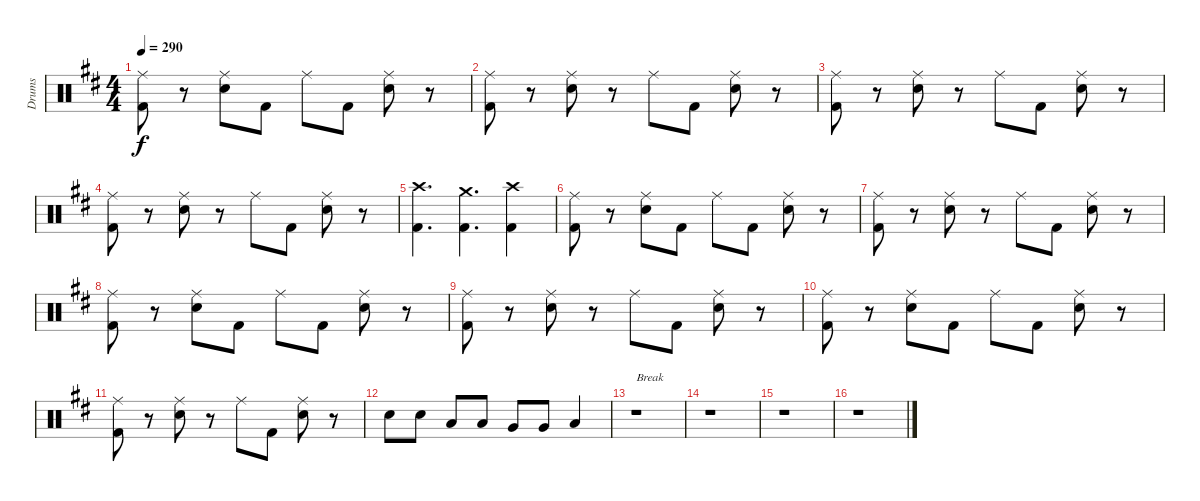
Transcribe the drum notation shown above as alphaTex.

\track ("Drums" "Drums") {instrument percussion}
\staff {score}
\articulation defaults
\ts (4 4)
\tempo 290
\clef neutral
\ks d
("Ride (middle)" "Kick (hit) 2").8{dy f} r.8 ("Ride (middle)" "Electric Snare (hit)").8 "Kick (hit) 2".8 "Ride (middle)".8 "Kick (hit) 2".8 ("Ride (middle)" "Electric Snare (hit)").8 r.8 |
("Ride (middle)" "Kick (hit) 2").8 r.8 ("Ride (middle)" "Electric Snare (hit)").8 r.8 "Ride (middle)".8 "Kick (hit) 2".8 ("Ride (middle)" "Electric Snare (hit)").8 r.8 |
("Ride (middle)" "Kick (hit) 2").8 r.8 ("Ride (middle)" "Electric Snare (hit)").8 r.8 "Ride (middle)".8 "Kick (hit) 2".8 ("Ride (middle)" "Electric Snare (hit)").8 r.8 |
("Ride (middle)" "Kick (hit) 2").8 r.8 ("Ride (middle)" "Electric Snare (hit)").8 r.8 "Ride (middle)".8 "Kick (hit) 2".8 ("Ride (middle)" "Electric Snare (hit)").8 r.8 |
("Crash high (hit)" "Kick (hit) 2").4{d} ("Crash medium (hit)" "Kick (hit) 2").4{d} ("Crash high (hit)" "Kick (hit) 2").4 |
("Ride (middle)" "Kick (hit) 2").8 r.8 ("Ride (middle)" "Electric Snare (hit)").8 "Kick (hit) 2".8 "Ride (middle)".8 "Kick (hit) 2".8 ("Ride (middle)" "Electric Snare (hit)").8 r.8 |
("Ride (middle)" "Kick (hit) 2").8 r.8 ("Ride (middle)" "Electric Snare (hit)").8 r.8 "Ride (middle)".8 "Kick (hit) 2".8 ("Ride (middle)" "Electric Snare (hit)").8 r.8 |
("Ride (middle)" "Kick (hit) 2").8 r.8 ("Ride (middle)" "Electric Snare (hit)").8 "Kick (hit) 2".8 "Ride (middle)".8 "Kick (hit) 2".8 ("Ride (middle)" "Electric Snare (hit)").8 r.8 |
("Ride (middle)" "Kick (hit) 2").8 r.8 ("Ride (middle)" "Electric Snare (hit)").8 r.8 "Ride (middle)".8 "Kick (hit) 2".8 ("Ride (middle)" "Electric Snare (hit)").8 r.8 |
("Ride (middle)" "Kick (hit) 2").8 r.8 ("Ride (middle)" "Electric Snare (hit)").8 "Kick (hit) 2".8 "Ride (middle)".8 "Kick (hit) 2".8 ("Ride (middle)" "Electric Snare (hit)").8 r.8 |
("Ride (middle)" "Kick (hit) 2").8 r.8 ("Ride (middle)" "Electric Snare (hit)").8 r.8 "Ride (middle)".8 "Kick (hit) 2".8 ("Ride (middle)" "Electric Snare (hit)").8 r.8 |
"Electric Snare (hit)".8 "Electric Snare (hit)".8 "Low Tom (hit)".8 "Low Tom (hit)".8 "Very Low Tom (hit)".8 "Very Low Tom (hit)".8 "Low Floor Tom (hit)".4 |
r.1{txt "Break"} |
r.1 |
r.1 |
r.1
